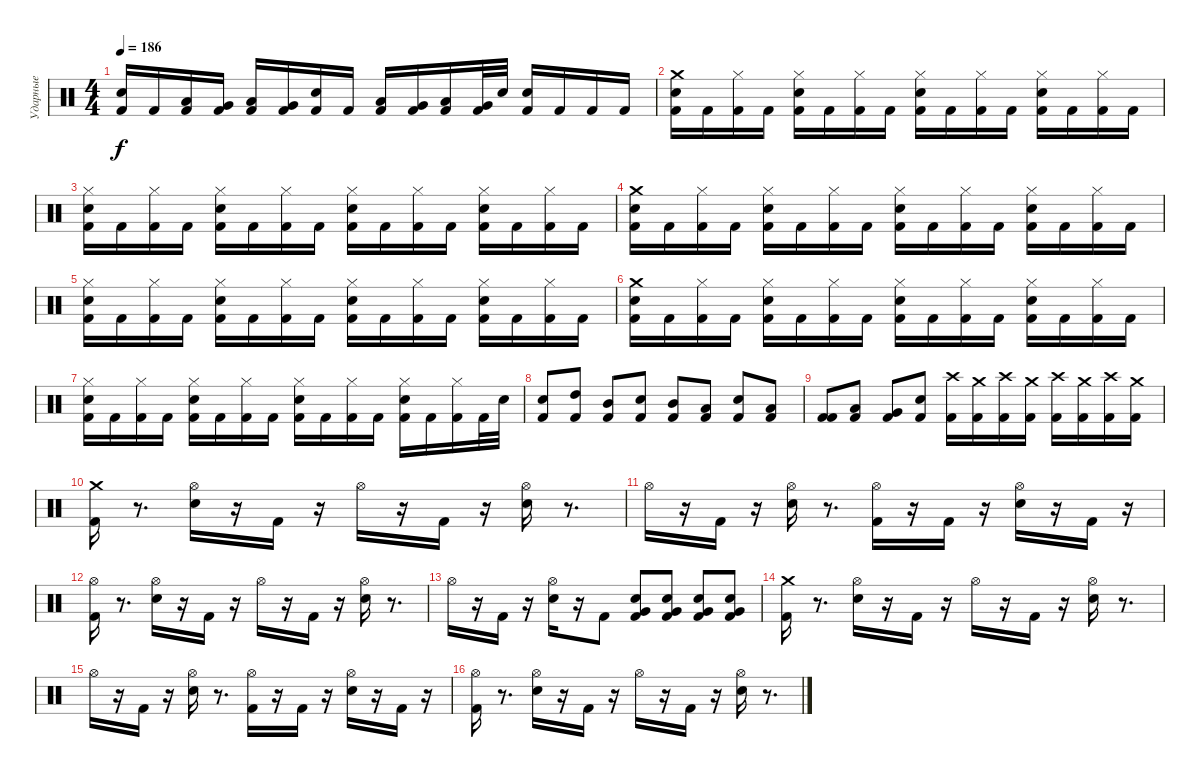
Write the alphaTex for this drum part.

\track ("Ударные" "Ударные") {instrument percussion}
\staff {score}
\articulation defaults
\ts (4 4)
\tempo 186
\clef neutral
\ks c
("Kick (hit) 2" "Snare (hit) 2").16{dy f} "Kick (hit) 2".16 ("Kick (hit) 2" "Low Tom (hit)").16 ("Kick (hit) 2" "Very Low Tom (hit)").16 ("Kick (hit) 2" "Low Tom (hit)").16 ("Kick (hit) 2" "Very Low Tom (hit)").16 ("Kick (hit) 2" "Snare (hit) 2").16 "Kick (hit) 2".16 ("Kick (hit) 2" "Low Tom (hit)").16 ("Kick (hit) 2" "Very Low Tom (hit)").16 ("Kick (hit) 2" "Low Tom (hit)").16 ("Kick (hit) 2" "Very Low Tom (hit)").32 "Snare (hit) 2".32 ("Kick (hit) 2" "Snare (hit) 2").16 "Kick (hit) 2".16 "Kick (hit) 2".16 "Kick (hit) 2".16 |
("Kick (hit) 2" "Snare (hit) 2" "Crash medium (hit)").16 "Kick (hit) 2".16 ("Kick (hit) 2" "Hi-Hat (closed)").16 "Kick (hit) 2".16 ("Kick (hit) 2" "Snare (hit) 2" "Hi-Hat (closed)").16 "Kick (hit) 2".16 ("Kick (hit) 2" "Hi-Hat (closed)").16 "Kick (hit) 2".16 ("Kick (hit) 2" "Snare (hit) 2" "Hi-Hat (closed)").16 "Kick (hit) 2".16 ("Kick (hit) 2" "Hi-Hat (closed)").16 "Kick (hit) 2".16 ("Kick (hit) 2" "Snare (hit) 2" "Hi-Hat (closed)").16 "Kick (hit) 2".16 ("Kick (hit) 2" "Hi-Hat (closed)").16 "Kick (hit) 2".16 |
("Kick (hit) 2" "Snare (hit) 2" "Hi-Hat (closed)").16 "Kick (hit) 2".16 ("Kick (hit) 2" "Hi-Hat (closed)").16 "Kick (hit) 2".16 ("Kick (hit) 2" "Snare (hit) 2" "Hi-Hat (closed)").16 "Kick (hit) 2".16 ("Kick (hit) 2" "Hi-Hat (closed)").16 "Kick (hit) 2".16 ("Kick (hit) 2" "Snare (hit) 2" "Hi-Hat (closed)").16 "Kick (hit) 2".16 ("Kick (hit) 2" "Hi-Hat (closed)").16 "Kick (hit) 2".16 ("Kick (hit) 2" "Snare (hit) 2" "Hi-Hat (closed)").16 "Kick (hit) 2".16 ("Kick (hit) 2" "Hi-Hat (closed)").16 "Kick (hit) 2".16 |
("Kick (hit) 2" "Snare (hit) 2" "Crash medium (hit)").16 "Kick (hit) 2".16 ("Kick (hit) 2" "Hi-Hat (closed)").16 "Kick (hit) 2".16 ("Kick (hit) 2" "Snare (hit) 2" "Hi-Hat (closed)").16 "Kick (hit) 2".16 ("Kick (hit) 2" "Hi-Hat (closed)").16 "Kick (hit) 2".16 ("Kick (hit) 2" "Snare (hit) 2" "Hi-Hat (closed)").16 "Kick (hit) 2".16 ("Kick (hit) 2" "Hi-Hat (closed)").16 "Kick (hit) 2".16 ("Kick (hit) 2" "Snare (hit) 2" "Hi-Hat (closed)").16 "Kick (hit) 2".16 ("Kick (hit) 2" "Hi-Hat (closed)").16 "Kick (hit) 2".16 |
("Kick (hit) 2" "Snare (hit) 2" "Hi-Hat (closed)").16 "Kick (hit) 2".16 ("Kick (hit) 2" "Hi-Hat (closed)").16 "Kick (hit) 2".16 ("Kick (hit) 2" "Snare (hit) 2" "Hi-Hat (closed)").16 "Kick (hit) 2".16 ("Kick (hit) 2" "Hi-Hat (closed)").16 "Kick (hit) 2".16 ("Kick (hit) 2" "Snare (hit) 2" "Hi-Hat (closed)").16 "Kick (hit) 2".16 ("Kick (hit) 2" "Hi-Hat (closed)").16 "Kick (hit) 2".16 ("Kick (hit) 2" "Snare (hit) 2" "Hi-Hat (closed)").16 "Kick (hit) 2".16 ("Kick (hit) 2" "Hi-Hat (closed)").16 "Kick (hit) 2".16 |
("Kick (hit) 2" "Snare (hit) 2" "Crash medium (hit)").16 "Kick (hit) 2".16 ("Kick (hit) 2" "Hi-Hat (closed)").16 "Kick (hit) 2".16 ("Kick (hit) 2" "Snare (hit) 2" "Hi-Hat (closed)").16 "Kick (hit) 2".16 ("Kick (hit) 2" "Hi-Hat (closed)").16 "Kick (hit) 2".16 ("Kick (hit) 2" "Snare (hit) 2" "Hi-Hat (closed)").16 "Kick (hit) 2".16 ("Kick (hit) 2" "Hi-Hat (closed)").16 "Kick (hit) 2".16 ("Kick (hit) 2" "Snare (hit) 2" "Hi-Hat (closed)").16 "Kick (hit) 2".16 ("Kick (hit) 2" "Hi-Hat (closed)").16 "Kick (hit) 2".16 |
("Kick (hit) 2" "Snare (hit) 2" "Hi-Hat (closed)").16 "Kick (hit) 2".16 ("Kick (hit) 2" "Hi-Hat (closed)").16 "Kick (hit) 2".16 ("Kick (hit) 2" "Snare (hit) 2" "Hi-Hat (closed)").16 "Kick (hit) 2".16 ("Kick (hit) 2" "Hi-Hat (closed)").16 "Kick (hit) 2".16 ("Kick (hit) 2" "Snare (hit) 2" "Hi-Hat (closed)").16 "Kick (hit) 2".16 ("Kick (hit) 2" "Hi-Hat (closed)").16 "Kick (hit) 2".16 ("Kick (hit) 2" "Snare (hit) 2" "Hi-Hat (closed)").16 "Kick (hit) 2".16 ("Kick (hit) 2" "Hi-Hat (closed)").16 "Kick (hit) 2".32 "Snare (hit) 2".32 |
("Kick (hit) 2" "Snare (hit) 2").8 ("Kick (hit) 2" "High Tom (hit)").8 ("Kick (hit) 2" "Mid Tom (hit)").8 ("Kick (hit) 2" "Snare (hit) 2").8 ("Kick (hit) 2" "Mid Tom (hit)").8 ("Kick (hit) 2" "Low Tom (hit)").8 ("Kick (hit) 2" "Snare (hit) 2").8 ("Kick (hit) 2" "Low Tom (hit)").8 |
("Kick (hit) 2" "Kick (hit) 2").8 ("Kick (hit) 2" "Low Tom (hit)").8 ("Kick (hit) 2" "Very Low Tom (hit)").8 ("Kick (hit) 2" "Snare (hit) 2").8 ("Kick (hit) 2" "Crash high (hit)").16 ("Kick (hit) 2" "Crash medium (hit)").16 ("Kick (hit) 2" "Crash high (hit)").16 ("Kick (hit) 2" "Crash medium (hit)").16 ("Kick (hit) 2" "Crash high (hit)").16 ("Kick (hit) 2" "Crash medium (hit)").16 ("Kick (hit) 2" "Crash high (hit)").16 ("Kick (hit) 2" "Crash medium (hit)").16 |
("Kick (hit) 2" "Crash medium (hit)").16 r.8{d} ("Snare (hit) 2" "Hi-Hat (open)").16 r.16 "Kick (hit) 2".16 r.16 "Hi-Hat (open)".16 r.16 "Kick (hit) 2".16 r.16 ("Snare (hit) 2" "Hi-Hat (open)").16 r.8{d} |
"Hi-Hat (open)".16 r.16 "Kick (hit) 2".16 r.16 ("Snare (hit) 2" "Hi-Hat (open)").16 r.8{d} ("Kick (hit) 2" "Hi-Hat (open)").16 r.16 "Kick (hit) 2".16 r.16 ("Snare (hit) 2" "Hi-Hat (open)").16 r.16 "Kick (hit) 2".16 r.16 |
("Kick (hit) 2" "Hi-Hat (open)").16 r.8{d} ("Snare (hit) 2" "Hi-Hat (open)").16 r.16 "Kick (hit) 2".16 r.16 "Hi-Hat (open)".16 r.16 "Kick (hit) 2".16 r.16 ("Snare (hit) 2" "Hi-Hat (open)").16 r.8{d} |
"Hi-Hat (open)".16 r.16 "Kick (hit) 2".16 r.16 ("Snare (hit) 2" "Hi-Hat (open)").16 r.16 "Kick (hit) 2".8 ("Kick (hit) 2" "Snare (hit) 2" "Very Low Tom (hit)").8 ("Kick (hit) 2" "Snare (hit) 2" "Very Low Tom (hit)").8 ("Kick (hit) 2" "Snare (hit) 2" "Very Low Tom (hit)").8 ("Kick (hit) 2" "Snare (hit) 2" "Very Low Tom (hit)").8 |
("Kick (hit) 2" "Crash medium (hit)").16 r.8{d} ("Snare (hit) 2" "Hi-Hat (open)").16 r.16 "Kick (hit) 2".16 r.16 "Hi-Hat (open)".16 r.16 "Kick (hit) 2".16 r.16 ("Snare (hit) 2" "Hi-Hat (open)").16 r.8{d} |
"Hi-Hat (open)".16 r.16 "Kick (hit) 2".16 r.16 ("Snare (hit) 2" "Hi-Hat (open)").16 r.8{d} ("Kick (hit) 2" "Hi-Hat (open)").16 r.16 "Kick (hit) 2".16 r.16 ("Snare (hit) 2" "Hi-Hat (open)").16 r.16 "Kick (hit) 2".16 r.16 |
("Kick (hit) 2" "Hi-Hat (open)").16 r.8{d} ("Snare (hit) 2" "Hi-Hat (open)").16 r.16 "Kick (hit) 2".16 r.16 "Hi-Hat (open)".16 r.16 "Kick (hit) 2".16 r.16 ("Snare (hit) 2" "Hi-Hat (open)").16 r.8{d}
